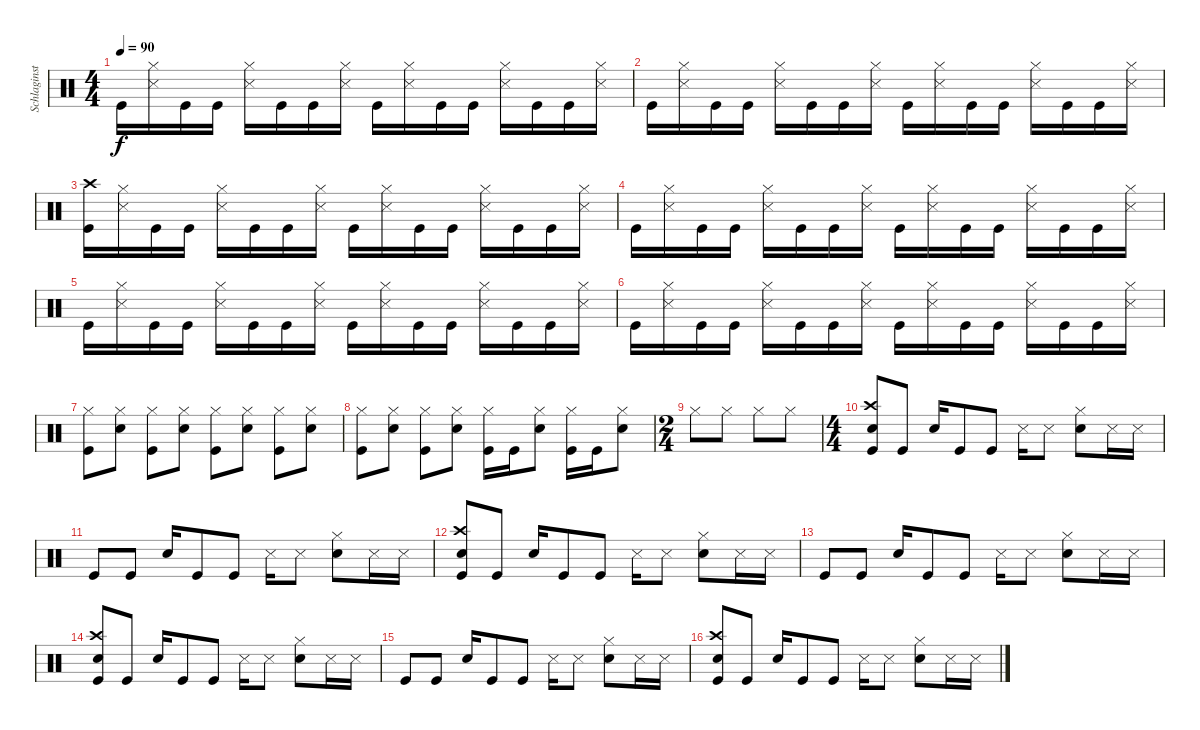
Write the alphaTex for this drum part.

\track ("Schlaginstrumente - Auswahl" "Schlaginst") {instrument percussion}
\staff {score}
\articulation defaults
\ts (4 4)
\tempo 90
\clef neutral
\ks c "Kick (hit)".16{dy f}
("Hi-Hat (closed)" "Snare (side stick) 3").16 "Kick (hit)".16 "Kick (hit)".16 ("Hi-Hat (closed)" "Snare (side stick) 3").16 "Kick (hit)".16 "Kick (hit)".16 ("Hi-Hat (closed)" "Snare (side stick) 3").16 "Kick (hit)".16 ("Hi-Hat (closed)" "Snare (side stick) 3").16 "Kick (hit)".16 "Kick (hit)".16 ("Hi-Hat (closed)" "Snare (side stick) 3").16 "Kick (hit)".16 "Kick (hit)".16 ("Hi-Hat (closed)" "Snare (side stick) 3").16 |
"Kick (hit)".16 ("Hi-Hat (closed)" "Snare (side stick) 3").16 "Kick (hit)".16 "Kick (hit)".16 ("Hi-Hat (closed)" "Snare (side stick) 3").16 "Kick (hit)".16 "Kick (hit)".16 ("Hi-Hat (closed)" "Snare (side stick) 3").16 "Kick (hit)".16 ("Hi-Hat (closed)" "Snare (side stick) 3").16 "Kick (hit)".16 "Kick (hit)".16 ("Hi-Hat (closed)" "Snare (side stick) 3").16 "Kick (hit)".16 "Kick (hit)".16 ("Hi-Hat (closed)" "Snare (side stick) 3").16 |
("Crash high (hit)" "Kick (hit)").16 ("Hi-Hat (closed)" "Snare (side stick) 3").16 "Kick (hit)".16 "Kick (hit)".16 ("Hi-Hat (closed)" "Snare (side stick) 3").16 "Kick (hit)".16 "Kick (hit)".16 ("Hi-Hat (closed)" "Snare (side stick) 3").16 "Kick (hit)".16 ("Hi-Hat (closed)" "Snare (side stick) 3").16 "Kick (hit)".16 "Kick (hit)".16 ("Hi-Hat (closed)" "Snare (side stick) 3").16 "Kick (hit)".16 "Kick (hit)".16 ("Hi-Hat (closed)" "Snare (side stick) 3").16 |
"Kick (hit)".16 ("Hi-Hat (closed)" "Snare (side stick) 3").16 "Kick (hit)".16 "Kick (hit)".16 ("Hi-Hat (closed)" "Snare (side stick) 3").16 "Kick (hit)".16 "Kick (hit)".16 ("Hi-Hat (closed)" "Snare (side stick) 3").16 "Kick (hit)".16 ("Hi-Hat (closed)" "Snare (side stick) 3").16 "Kick (hit)".16 "Kick (hit)".16 ("Hi-Hat (closed)" "Snare (side stick) 3").16 "Kick (hit)".16 "Kick (hit)".16 ("Hi-Hat (closed)" "Snare (side stick) 3").16 |
"Kick (hit)".16 ("Hi-Hat (closed)" "Snare (side stick) 3").16 "Kick (hit)".16 "Kick (hit)".16 ("Hi-Hat (closed)" "Snare (side stick) 3").16 "Kick (hit)".16 "Kick (hit)".16 ("Hi-Hat (closed)" "Snare (side stick) 3").16 "Kick (hit)".16 ("Hi-Hat (closed)" "Snare (side stick) 3").16 "Kick (hit)".16 "Kick (hit)".16 ("Hi-Hat (closed)" "Snare (side stick) 3").16 "Kick (hit)".16 "Kick (hit)".16 ("Hi-Hat (closed)" "Snare (side stick) 3").16 |
"Kick (hit)".16 ("Hi-Hat (closed)" "Snare (side stick) 3").16 "Kick (hit)".16 "Kick (hit)".16 ("Hi-Hat (closed)" "Snare (side stick) 3").16 "Kick (hit)".16 "Kick (hit)".16 ("Hi-Hat (closed)" "Snare (side stick) 3").16 "Kick (hit)".16 ("Hi-Hat (closed)" "Snare (side stick) 3").16 "Kick (hit)".16 "Kick (hit)".16 ("Hi-Hat (closed)" "Snare (side stick) 3").16 "Kick (hit)".16 "Kick (hit)".16 ("Hi-Hat (closed)" "Snare (side stick) 3").16 |
("Hi-Hat (closed)" "Kick (hit)").8 ("Hi-Hat (closed)" "Snare (hit) 2").8 ("Hi-Hat (closed)" "Kick (hit)").8 ("Hi-Hat (closed)" "Snare (hit) 2").8 ("Hi-Hat (closed)" "Kick (hit)").8 ("Hi-Hat (closed)" "Snare (hit) 2").8 ("Hi-Hat (closed)" "Kick (hit)").8 ("Hi-Hat (closed)" "Snare (hit) 2").8 |
("Hi-Hat (closed)" "Kick (hit)").8 ("Hi-Hat (closed)" "Snare (hit) 2").8 ("Hi-Hat (closed)" "Kick (hit)").8 ("Hi-Hat (closed)" "Snare (hit) 2").8 ("Hi-Hat (closed)" "Kick (hit)").16 "Kick (hit)".16 ("Hi-Hat (closed)" "Snare (hit) 2").8 ("Hi-Hat (closed)" "Kick (hit)").16 "Kick (hit)".16 ("Hi-Hat (closed)" "Snare (hit) 2").8 |
\ts (2 4)
"Hi-Hat (closed)".8 "Hi-Hat (closed)".8 "Hi-Hat (closed)".8 "Hi-Hat (closed)".8 |
\ts (4 4)
("Crash high (hit)" "Snare (hit) 2" "Kick (hit)").8 "Kick (hit)".8 "Snare (hit) 2".16 "Kick (hit)".8 "Kick (hit)".8 "Snare (side stick) 3".16 "Snare (side stick) 3".8 ("Hi-Hat (closed)" "Snare (hit) 2").8 "Snare (side stick) 3".16 "Snare (side stick) 3".16 |
"Kick (hit)".8 "Kick (hit)".8 "Snare (hit) 2".16 "Kick (hit)".8 "Kick (hit)".8 "Snare (side stick) 3".16 "Snare (side stick) 3".8 ("Hi-Hat (closed)" "Snare (hit) 2").8 "Snare (side stick) 3".16 "Snare (side stick) 3".16 |
("Crash high (hit)" "Snare (hit) 2" "Kick (hit)").8 "Kick (hit)".8 "Snare (hit) 2".16 "Kick (hit)".8 "Kick (hit)".8 "Snare (side stick) 3".16 "Snare (side stick) 3".8 ("Hi-Hat (closed)" "Snare (hit) 2").8 "Snare (side stick) 3".16 "Snare (side stick) 3".16 |
"Kick (hit)".8 "Kick (hit)".8 "Snare (hit) 2".16 "Kick (hit)".8 "Kick (hit)".8 "Snare (side stick) 3".16 "Snare (side stick) 3".8 ("Hi-Hat (closed)" "Snare (hit) 2").8 "Snare (side stick) 3".16 "Snare (side stick) 3".16 |
("Crash high (hit)" "Snare (hit) 2" "Kick (hit)").8 "Kick (hit)".8 "Snare (hit) 2".16 "Kick (hit)".8 "Kick (hit)".8 "Snare (side stick) 3".16 "Snare (side stick) 3".8 ("Hi-Hat (closed)" "Snare (hit) 2").8 "Snare (side stick) 3".16 "Snare (side stick) 3".16 |
"Kick (hit)".8 "Kick (hit)".8 "Snare (hit) 2".16 "Kick (hit)".8 "Kick (hit)".8 "Snare (side stick) 3".16 "Snare (side stick) 3".8 ("Hi-Hat (closed)" "Snare (hit) 2").8 "Snare (side stick) 3".16 "Snare (side stick) 3".16 |
("Crash high (hit)" "Snare (hit) 2" "Kick (hit)").8 "Kick (hit)".8 "Snare (hit) 2".16 "Kick (hit)".8 "Kick (hit)".8 "Snare (side stick) 3".16 "Snare (side stick) 3".8 ("Hi-Hat (closed)" "Snare (hit) 2").8 "Snare (side stick) 3".16 "Snare (side stick) 3".16
